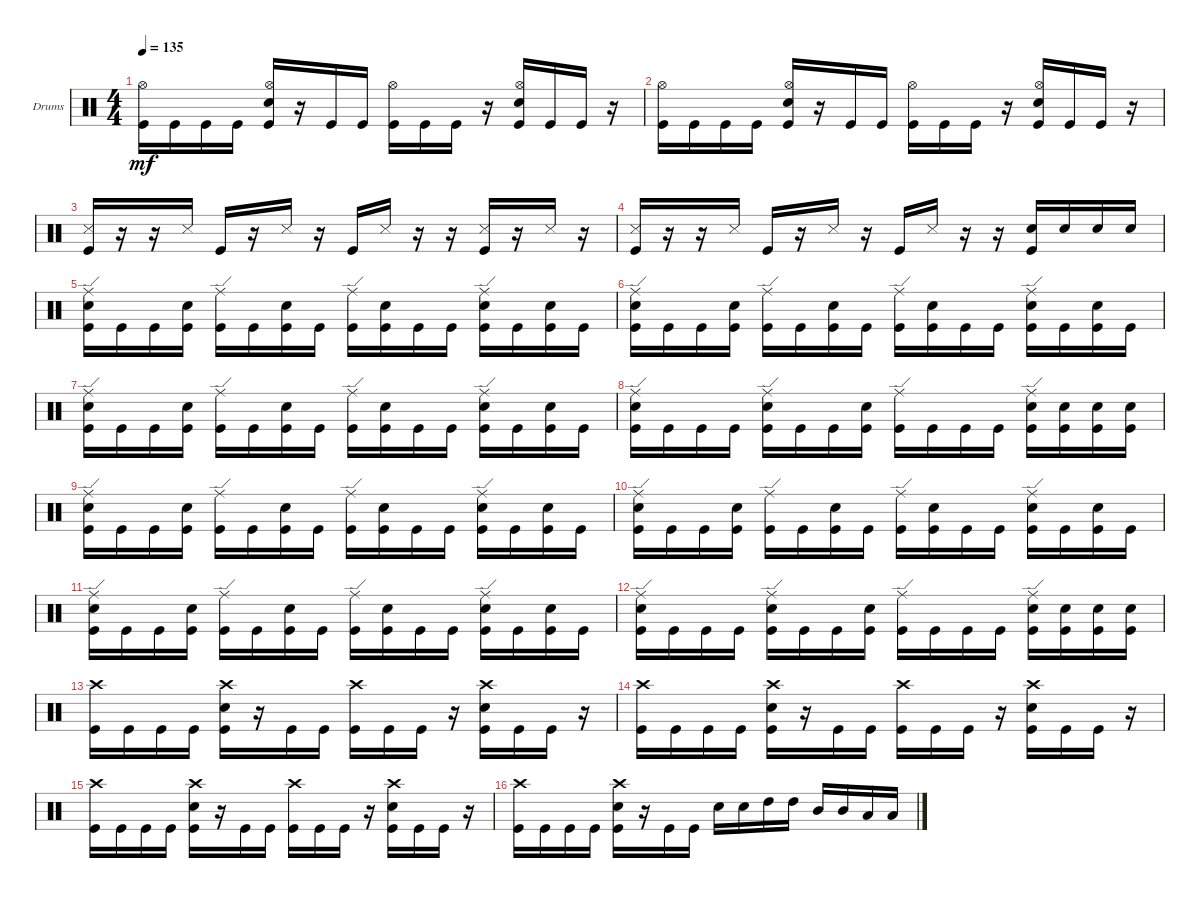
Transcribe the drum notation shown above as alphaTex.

\defaultSystemsLayout 4
\bracketExtendMode groupsimilarinstruments
\firstSystemTrackNameOrientation horizontal
\otherSystemsTrackNameOrientation horizontal
\track ("Rolo" "Drums") {instrument percussion}
\staff {score}
\articulation defaults
\ts (4 4)
\tempo 135
\clef neutral
\ks c
("Kick (hit)" "Hi-Hat (open)").16{dy mf} "Kick (hit)".16 "Kick (hit)".16 "Kick (hit)".16 ("Kick (hit)" "Snare (hit) 2" "Hi-Hat (open)").16 r.16 "Kick (hit)".16 "Kick (hit)".16 ("Kick (hit)" "Hi-Hat (open)").16 "Kick (hit)".16 "Kick (hit)".16 r.16 ("Kick (hit)" "Snare (hit) 2" "Hi-Hat (open)").16 "Kick (hit)".16 "Kick (hit)".16 r.16 |
("Kick (hit)" "Hi-Hat (open)").16 "Kick (hit)".16 "Kick (hit)".16 "Kick (hit)".16 ("Kick (hit)" "Snare (hit) 2" "Hi-Hat (open)").16 r.16 "Kick (hit)".16 "Kick (hit)".16 ("Kick (hit)" "Hi-Hat (open)").16 "Kick (hit)".16 "Kick (hit)".16 r.16 ("Kick (hit)" "Snare (hit) 2" "Hi-Hat (open)").16 "Kick (hit)".16 "Kick (hit)".16 r.16 |
("Kick (hit)" "Snare (side stick) 3").16 r.16 r.16 "Snare (side stick) 3".16 "Kick (hit)".16 r.16 "Snare (side stick) 3".16 r.16 "Kick (hit)".16 "Snare (side stick) 3".16 r.16 r.16 ("Kick (hit)" "Snare (side stick) 3").16 r.16 "Snare (side stick) 3".16 r.16 |
("Kick (hit)" "Snare (side stick) 3").16 r.16 r.16 "Snare (side stick) 3".16 "Kick (hit)".16 r.16 "Snare (side stick) 3".16 r.16 "Kick (hit)".16 "Snare (side stick) 3".16 r.16 r.16 ("Kick (hit)" "Snare (hit) 2").16 "Snare (hit) 2".16 "Snare (hit) 2".16 "Snare (hit) 2".16 |
("Kick (hit)" "Snare (hit) 2" "Ride (edge)").16 "Kick (hit)".16 "Kick (hit)".16 ("Kick (hit)" "Snare (hit) 2").16 ("Kick (hit)" "Ride (edge)").16 "Kick (hit)".16 ("Kick (hit)" "Snare (hit) 2").16 "Kick (hit)".16 ("Kick (hit)" "Ride (edge)").16 ("Kick (hit)" "Snare (hit) 2").16 "Kick (hit)".16 "Kick (hit)".16 ("Kick (hit)" "Snare (hit) 2" "Ride (edge)").16 "Kick (hit)".16 ("Kick (hit)" "Snare (hit) 2").16 "Kick (hit)".16 |
("Kick (hit)" "Snare (hit) 2" "Ride (edge)").16 "Kick (hit)".16 "Kick (hit)".16 ("Kick (hit)" "Snare (hit) 2").16 ("Kick (hit)" "Ride (edge)").16 "Kick (hit)".16 ("Kick (hit)" "Snare (hit) 2").16 "Kick (hit)".16 ("Kick (hit)" "Ride (edge)").16 ("Kick (hit)" "Snare (hit) 2").16 "Kick (hit)".16 "Kick (hit)".16 ("Kick (hit)" "Snare (hit) 2" "Ride (edge)").16 "Kick (hit)".16 ("Kick (hit)" "Snare (hit) 2").16 "Kick (hit)".16 |
("Kick (hit)" "Snare (hit) 2" "Ride (edge)").16 "Kick (hit)".16 "Kick (hit)".16 ("Kick (hit)" "Snare (hit) 2").16 ("Kick (hit)" "Ride (edge)").16 "Kick (hit)".16 ("Kick (hit)" "Snare (hit) 2").16 "Kick (hit)".16 ("Kick (hit)" "Ride (edge)").16 ("Kick (hit)" "Snare (hit) 2").16 "Kick (hit)".16 "Kick (hit)".16 ("Kick (hit)" "Snare (hit) 2" "Ride (edge)").16 "Kick (hit)".16 ("Kick (hit)" "Snare (hit) 2").16 "Kick (hit)".16 |
("Kick (hit)" "Ride (edge)" "Snare (hit) 2").16 "Kick (hit)".16 "Kick (hit)".16 "Kick (hit)".16 ("Kick (hit)" "Ride (edge)" "Snare (hit) 2").16 "Kick (hit)".16 "Kick (hit)".16 ("Kick (hit)" "Snare (hit) 2").16 ("Kick (hit)" "Ride (edge)").16 "Kick (hit)".16 "Kick (hit)".16 "Kick (hit)".16 ("Kick (hit)" "Ride (edge)" "Snare (hit) 2").16 ("Kick (hit)" "Snare (hit) 2").16 ("Kick (hit)" "Snare (hit) 2").16 ("Kick (hit)" "Snare (hit) 2").16 |
("Kick (hit)" "Snare (hit) 2" "Ride (edge)").16 "Kick (hit)".16 "Kick (hit)".16 ("Kick (hit)" "Snare (hit) 2").16 ("Kick (hit)" "Ride (edge)").16 "Kick (hit)".16 ("Kick (hit)" "Snare (hit) 2").16 "Kick (hit)".16 ("Kick (hit)" "Ride (edge)").16 ("Kick (hit)" "Snare (hit) 2").16 "Kick (hit)".16 "Kick (hit)".16 ("Kick (hit)" "Snare (hit) 2" "Ride (edge)").16 "Kick (hit)".16 ("Kick (hit)" "Snare (hit) 2").16 "Kick (hit)".16 |
("Kick (hit)" "Snare (hit) 2" "Ride (edge)").16 "Kick (hit)".16 "Kick (hit)".16 ("Kick (hit)" "Snare (hit) 2").16 ("Kick (hit)" "Ride (edge)").16 "Kick (hit)".16 ("Kick (hit)" "Snare (hit) 2").16 "Kick (hit)".16 ("Kick (hit)" "Ride (edge)").16 ("Kick (hit)" "Snare (hit) 2").16 "Kick (hit)".16 "Kick (hit)".16 ("Kick (hit)" "Snare (hit) 2" "Ride (edge)").16 "Kick (hit)".16 ("Kick (hit)" "Snare (hit) 2").16 "Kick (hit)".16 |
("Kick (hit)" "Snare (hit) 2" "Ride (edge)").16 "Kick (hit)".16 "Kick (hit)".16 ("Kick (hit)" "Snare (hit) 2").16 ("Kick (hit)" "Ride (edge)").16 "Kick (hit)".16 ("Kick (hit)" "Snare (hit) 2").16 "Kick (hit)".16 ("Kick (hit)" "Ride (edge)").16 ("Kick (hit)" "Snare (hit) 2").16 "Kick (hit)".16 "Kick (hit)".16 ("Kick (hit)" "Snare (hit) 2" "Ride (edge)").16 "Kick (hit)".16 ("Kick (hit)" "Snare (hit) 2").16 "Kick (hit)".16 |
("Kick (hit)" "Ride (edge)" "Snare (hit) 2").16 "Kick (hit)".16 "Kick (hit)".16 "Kick (hit)".16 ("Kick (hit)" "Ride (edge)" "Snare (hit) 2").16 "Kick (hit)".16 "Kick (hit)".16 ("Kick (hit)" "Snare (hit) 2").16 ("Kick (hit)" "Ride (edge)").16 "Kick (hit)".16 "Kick (hit)".16 "Kick (hit)".16 ("Kick (hit)" "Ride (edge)" "Snare (hit) 2").16 ("Kick (hit)" "Snare (hit) 2").16 ("Kick (hit)" "Snare (hit) 2").16 ("Kick (hit)" "Snare (hit) 2").16 |
("Kick (hit)" "Crash high (hit)").16 "Kick (hit)".16 "Kick (hit)".16 "Kick (hit)".16 ("Kick (hit)" "Snare (hit) 2" "Crash high (hit)").16 r.16 "Kick (hit)".16 "Kick (hit)".16 ("Kick (hit)" "Crash high (hit)").16 "Kick (hit)".16 "Kick (hit)".16 r.16 ("Kick (hit)" "Snare (hit) 2" "Crash high (hit)").16 "Kick (hit)".16 "Kick (hit)".16 r.16 |
("Kick (hit)" "Crash high (hit)").16 "Kick (hit)".16 "Kick (hit)".16 "Kick (hit)".16 ("Kick (hit)" "Snare (hit) 2" "Crash high (hit)").16 r.16 "Kick (hit)".16 "Kick (hit)".16 ("Kick (hit)" "Crash high (hit)").16 "Kick (hit)".16 "Kick (hit)".16 r.16 ("Kick (hit)" "Snare (hit) 2" "Crash high (hit)").16 "Kick (hit)".16 "Kick (hit)".16 r.16 |
("Kick (hit)" "Crash high (hit)").16 "Kick (hit)".16 "Kick (hit)".16 "Kick (hit)".16 ("Kick (hit)" "Snare (hit) 2" "Crash high (hit)").16 r.16 "Kick (hit)".16 "Kick (hit)".16 ("Kick (hit)" "Crash high (hit)").16 "Kick (hit)".16 "Kick (hit)".16 r.16 ("Kick (hit)" "Snare (hit) 2" "Crash high (hit)").16 "Kick (hit)".16 "Kick (hit)".16 r.16 |
("Kick (hit)" "Crash high (hit)").16 "Kick (hit)".16 "Kick (hit)".16 "Kick (hit)".16 ("Kick (hit)" "Snare (hit) 2" "Crash high (hit)").16 r.16 "Kick (hit)".16 "Kick (hit)".16 "Snare (hit) 2".16 "Snare (hit) 2".16 "High Tom (hit)".16 "High Tom (hit)".16 "Mid Tom (hit)".16 "Mid Tom (hit)".16 "Low Tom (hit)".16 "Low Tom (hit)".16
